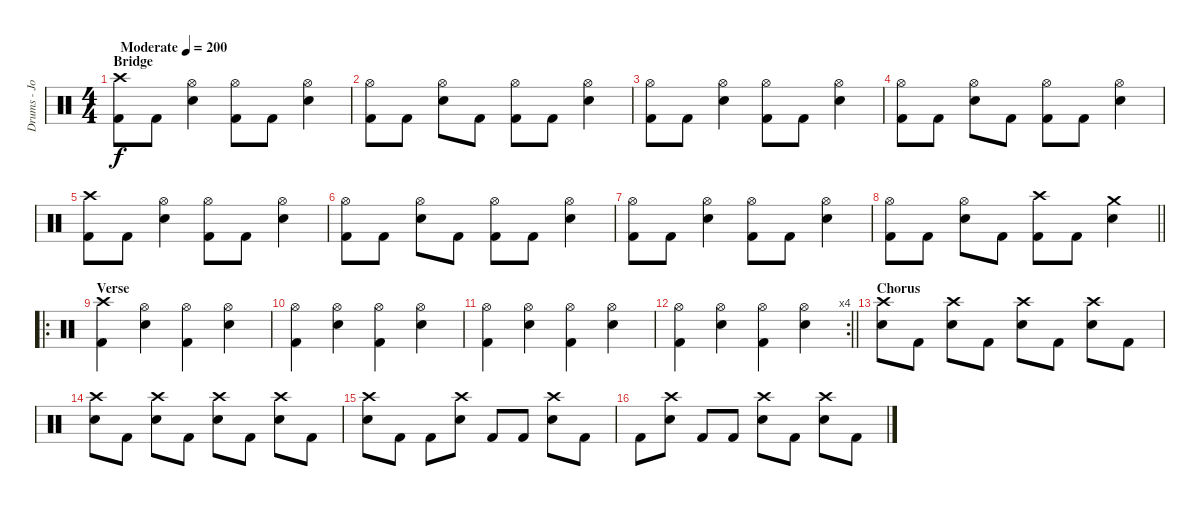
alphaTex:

\track ("Drums - John" "Drums - Jo") {instrument percussion}
\staff {score}
\articulation defaults
\ts (4 4)
\section ("" "Bridge")
\tempo (200 "Moderate")
\clef neutral
\ks c
("Crash high (hit)" "Kick (hit) 2").8{dy f} "Kick (hit) 2".8 ("Electric Snare (hit)" "Hi-Hat (open)").4 ("Kick (hit) 2" "Hi-Hat (open)").8 "Kick (hit) 2".8 ("Electric Snare (hit)" "Hi-Hat (open)").4 |
("Kick (hit) 2" "Hi-Hat (open)").8 "Kick (hit) 2".8 ("Electric Snare (hit)" "Hi-Hat (open)").8 "Kick (hit) 2".8 ("Kick (hit) 2" "Hi-Hat (open)").8 "Kick (hit) 2".8 ("Electric Snare (hit)" "Hi-Hat (open)").4 |
("Kick (hit) 2" "Hi-Hat (open)").8 "Kick (hit) 2".8 ("Electric Snare (hit)" "Hi-Hat (open)").4 ("Kick (hit) 2" "Hi-Hat (open)").8 "Kick (hit) 2".8 ("Electric Snare (hit)" "Hi-Hat (open)").4 |
("Kick (hit) 2" "Hi-Hat (open)").8 "Kick (hit) 2".8 ("Electric Snare (hit)" "Hi-Hat (open)").8 "Kick (hit) 2".8 ("Kick (hit) 2" "Hi-Hat (open)").8 "Kick (hit) 2".8 ("Electric Snare (hit)" "Hi-Hat (open)").4 |
("Crash high (hit)" "Kick (hit) 2").8 "Kick (hit) 2".8 ("Electric Snare (hit)" "Hi-Hat (open)").4 ("Kick (hit) 2" "Hi-Hat (open)").8 "Kick (hit) 2".8 ("Electric Snare (hit)" "Hi-Hat (open)").4 |
("Kick (hit) 2" "Hi-Hat (open)").8 "Kick (hit) 2".8 ("Electric Snare (hit)" "Hi-Hat (open)").8 "Kick (hit) 2".8 ("Kick (hit) 2" "Hi-Hat (open)").8 "Kick (hit) 2".8 ("Electric Snare (hit)" "Hi-Hat (open)").4 |
("Kick (hit) 2" "Hi-Hat (open)").8 "Kick (hit) 2".8 ("Electric Snare (hit)" "Hi-Hat (open)").4 ("Kick (hit) 2" "Hi-Hat (open)").8 "Kick (hit) 2".8 ("Electric Snare (hit)" "Hi-Hat (open)").4 |
\barLineRight lightlight
("Kick (hit) 2" "Hi-Hat (open)").8 "Kick (hit) 2".8 ("Electric Snare (hit)" "Hi-Hat (open)").8 "Kick (hit) 2".8 ("Crash high (hit)" "Kick (hit) 2").8 "Kick (hit) 2".8 ("Crash medium (hit)" "Electric Snare (hit)").4 |
\ro
\section ("" "Verse")
("Crash high (hit)" "Kick (hit) 2").4 ("Electric Snare (hit)" "Hi-Hat (open)").4 ("Kick (hit) 2" "Hi-Hat (open)").4 ("Electric Snare (hit)" "Hi-Hat (open)").4 |
("Kick (hit) 2" "Hi-Hat (open)").4 ("Electric Snare (hit)" "Hi-Hat (open)").4 ("Kick (hit) 2" "Hi-Hat (open)").4 ("Electric Snare (hit)" "Hi-Hat (open)").4 |
("Kick (hit) 2" "Hi-Hat (open)").4 ("Electric Snare (hit)" "Hi-Hat (open)").4 ("Kick (hit) 2" "Hi-Hat (open)").4 ("Electric Snare (hit)" "Hi-Hat (open)").4 |
\rc 4
\barLineRight lightlight
("Kick (hit) 2" "Hi-Hat (open)").4 ("Electric Snare (hit)" "Hi-Hat (open)").4 ("Kick (hit) 2" "Hi-Hat (open)").4 ("Electric Snare (hit)" "Hi-Hat (open)").4 |
\section ("" "Chorus")
("Crash high (hit)" "Electric Snare (hit)").8 "Kick (hit) 2".8 ("Crash high (hit)" "Electric Snare (hit)").8 "Kick (hit) 2".8 ("Crash high (hit)" "Electric Snare (hit)").8 "Kick (hit) 2".8 ("Crash high (hit)" "Electric Snare (hit)").8 "Kick (hit) 2".8 |
("Crash high (hit)" "Electric Snare (hit)").8 "Kick (hit) 2".8 ("Crash high (hit)" "Electric Snare (hit)").8 "Kick (hit) 2".8 ("Crash high (hit)" "Electric Snare (hit)").8 "Kick (hit) 2".8 ("Crash high (hit)" "Electric Snare (hit)").8 "Kick (hit) 2".8 |
("Crash high (hit)" "Electric Snare (hit)").8 "Kick (hit) 2".8 "Kick (hit) 2".8 ("Crash high (hit)" "Electric Snare (hit)").8 "Kick (hit) 2".8 "Kick (hit) 2".8 ("Crash high (hit)" "Electric Snare (hit)").8 "Kick (hit) 2".8 |
"Kick (hit) 2".8 ("Crash high (hit)" "Electric Snare (hit)").8 "Kick (hit) 2".8 "Kick (hit) 2".8 ("Crash high (hit)" "Electric Snare (hit)").8 "Kick (hit) 2".8 ("Crash high (hit)" "Electric Snare (hit)").8 "Kick (hit) 2".8
